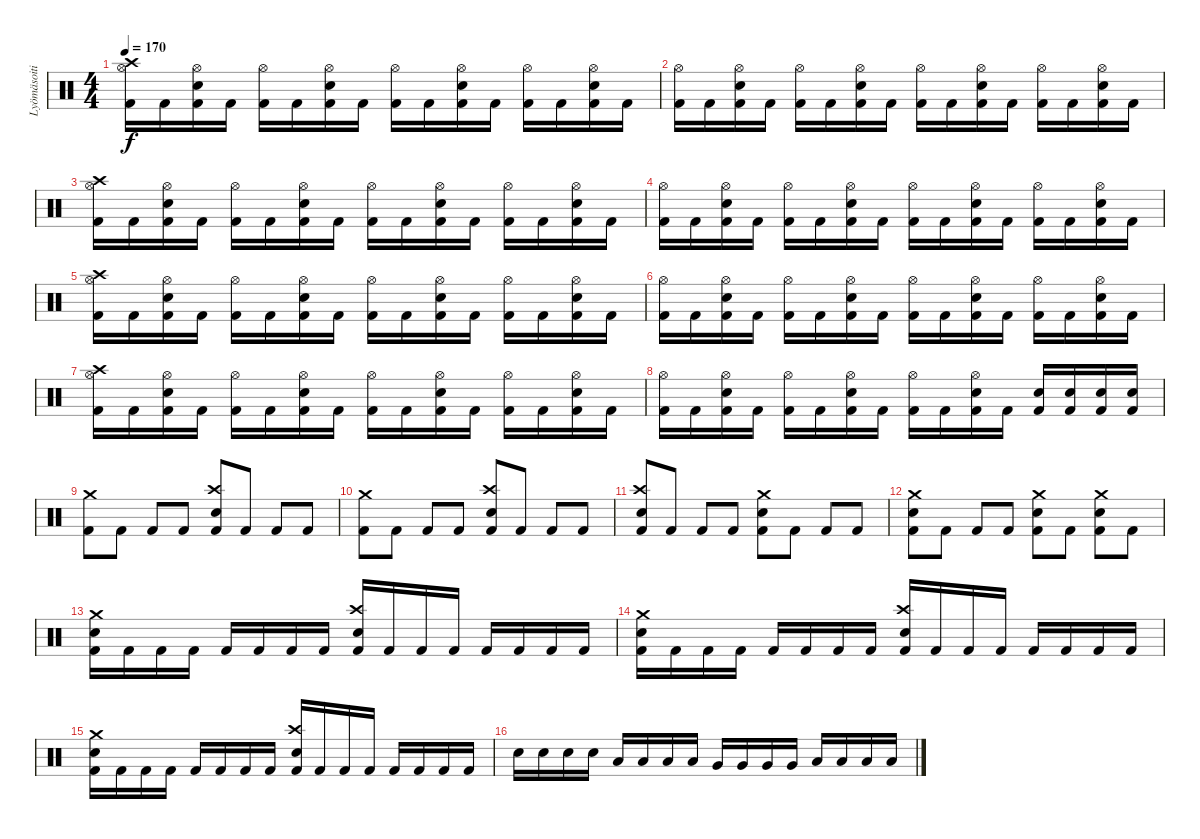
\track ("Lyömäsoitin" "Lyömäsoiti") {instrument percussion}
\staff {score}
\articulation defaults
\ts (4 4)
\tempo 170
\clef neutral
\ks c
("Kick (hit) 2" "Crash high (hit)" "Hi-Hat (open)").16{dy f} "Kick (hit) 2".16 ("Kick (hit) 2" "Snare (hit) 2" "Hi-Hat (open)").16 "Kick (hit) 2".16 ("Kick (hit) 2" "Hi-Hat (open)").16 "Kick (hit) 2".16 ("Kick (hit) 2" "Snare (hit) 2" "Hi-Hat (open)").16 "Kick (hit) 2".16 ("Kick (hit) 2" "Hi-Hat (open)").16 "Kick (hit) 2".16 ("Kick (hit) 2" "Snare (hit) 2" "Hi-Hat (open)").16 "Kick (hit) 2".16 ("Kick (hit) 2" "Hi-Hat (open)").16 "Kick (hit) 2".16 ("Kick (hit) 2" "Snare (hit) 2" "Hi-Hat (open)").16 "Kick (hit) 2".16 |
("Kick (hit) 2" "Hi-Hat (open)").16 "Kick (hit) 2".16 ("Kick (hit) 2" "Snare (hit) 2" "Hi-Hat (open)").16 "Kick (hit) 2".16 ("Kick (hit) 2" "Hi-Hat (open)").16 "Kick (hit) 2".16 ("Kick (hit) 2" "Snare (hit) 2" "Hi-Hat (open)").16 "Kick (hit) 2".16 ("Kick (hit) 2" "Hi-Hat (open)").16 "Kick (hit) 2".16 ("Kick (hit) 2" "Snare (hit) 2" "Hi-Hat (open)").16 "Kick (hit) 2".16 ("Kick (hit) 2" "Hi-Hat (open)").16 "Kick (hit) 2".16 ("Kick (hit) 2" "Snare (hit) 2" "Hi-Hat (open)").16 "Kick (hit) 2".16 |
("Kick (hit) 2" "Crash high (hit)" "Hi-Hat (open)").16 "Kick (hit) 2".16 ("Kick (hit) 2" "Snare (hit) 2" "Hi-Hat (open)").16 "Kick (hit) 2".16 ("Kick (hit) 2" "Hi-Hat (open)").16 "Kick (hit) 2".16 ("Kick (hit) 2" "Snare (hit) 2" "Hi-Hat (open)").16 "Kick (hit) 2".16 ("Kick (hit) 2" "Hi-Hat (open)").16 "Kick (hit) 2".16 ("Kick (hit) 2" "Snare (hit) 2" "Hi-Hat (open)").16 "Kick (hit) 2".16 ("Kick (hit) 2" "Hi-Hat (open)").16 "Kick (hit) 2".16 ("Kick (hit) 2" "Snare (hit) 2" "Hi-Hat (open)").16 "Kick (hit) 2".16 |
("Kick (hit) 2" "Hi-Hat (open)").16 "Kick (hit) 2".16 ("Kick (hit) 2" "Snare (hit) 2" "Hi-Hat (open)").16 "Kick (hit) 2".16 ("Kick (hit) 2" "Hi-Hat (open)").16 "Kick (hit) 2".16 ("Kick (hit) 2" "Snare (hit) 2" "Hi-Hat (open)").16 "Kick (hit) 2".16 ("Kick (hit) 2" "Hi-Hat (open)").16 "Kick (hit) 2".16 ("Kick (hit) 2" "Snare (hit) 2" "Hi-Hat (open)").16 "Kick (hit) 2".16 ("Kick (hit) 2" "Hi-Hat (open)").16 "Kick (hit) 2".16 ("Kick (hit) 2" "Snare (hit) 2" "Hi-Hat (open)").16 "Kick (hit) 2".16 |
("Kick (hit) 2" "Crash high (hit)" "Hi-Hat (open)").16 "Kick (hit) 2".16 ("Kick (hit) 2" "Snare (hit) 2" "Hi-Hat (open)").16 "Kick (hit) 2".16 ("Kick (hit) 2" "Hi-Hat (open)").16 "Kick (hit) 2".16 ("Kick (hit) 2" "Snare (hit) 2" "Hi-Hat (open)").16 "Kick (hit) 2".16 ("Kick (hit) 2" "Hi-Hat (open)").16 "Kick (hit) 2".16 ("Kick (hit) 2" "Snare (hit) 2" "Hi-Hat (open)").16 "Kick (hit) 2".16 ("Kick (hit) 2" "Hi-Hat (open)").16 "Kick (hit) 2".16 ("Kick (hit) 2" "Snare (hit) 2" "Hi-Hat (open)").16 "Kick (hit) 2".16 |
("Kick (hit) 2" "Hi-Hat (open)").16 "Kick (hit) 2".16 ("Kick (hit) 2" "Snare (hit) 2" "Hi-Hat (open)").16 "Kick (hit) 2".16 ("Kick (hit) 2" "Hi-Hat (open)").16 "Kick (hit) 2".16 ("Kick (hit) 2" "Snare (hit) 2" "Hi-Hat (open)").16 "Kick (hit) 2".16 ("Kick (hit) 2" "Hi-Hat (open)").16 "Kick (hit) 2".16 ("Kick (hit) 2" "Snare (hit) 2" "Hi-Hat (open)").16 "Kick (hit) 2".16 ("Kick (hit) 2" "Hi-Hat (open)").16 "Kick (hit) 2".16 ("Kick (hit) 2" "Snare (hit) 2" "Hi-Hat (open)").16 "Kick (hit) 2".16 |
("Kick (hit) 2" "Crash high (hit)" "Hi-Hat (open)").16 "Kick (hit) 2".16 ("Kick (hit) 2" "Snare (hit) 2" "Hi-Hat (open)").16 "Kick (hit) 2".16 ("Kick (hit) 2" "Hi-Hat (open)").16 "Kick (hit) 2".16 ("Kick (hit) 2" "Snare (hit) 2" "Hi-Hat (open)").16 "Kick (hit) 2".16 ("Kick (hit) 2" "Hi-Hat (open)").16 "Kick (hit) 2".16 ("Kick (hit) 2" "Snare (hit) 2" "Hi-Hat (open)").16 "Kick (hit) 2".16 ("Kick (hit) 2" "Hi-Hat (open)").16 "Kick (hit) 2".16 ("Kick (hit) 2" "Snare (hit) 2" "Hi-Hat (open)").16 "Kick (hit) 2".16 |
("Kick (hit) 2" "Hi-Hat (open)").16 "Kick (hit) 2".16 ("Kick (hit) 2" "Snare (hit) 2" "Hi-Hat (open)").16 "Kick (hit) 2".16 ("Kick (hit) 2" "Hi-Hat (open)").16 "Kick (hit) 2".16 ("Kick (hit) 2" "Snare (hit) 2" "Hi-Hat (open)").16 "Kick (hit) 2".16 ("Kick (hit) 2" "Hi-Hat (open)").16 "Kick (hit) 2".16 ("Kick (hit) 2" "Snare (hit) 2" "Hi-Hat (open)").16 "Kick (hit) 2".16 ("Kick (hit) 2" "Snare (hit) 2").16 ("Kick (hit) 2" "Snare (hit) 2").16 ("Kick (hit) 2" "Snare (hit) 2").16 ("Kick (hit) 2" "Snare (hit) 2").16 |
("Kick (hit) 2" "Crash medium (hit)").8 "Kick (hit) 2".8 "Kick (hit) 2".8 "Kick (hit) 2".8 ("Kick (hit) 2" "Snare (hit) 2" "Crash high (hit)").8 "Kick (hit) 2".8 "Kick (hit) 2".8 "Kick (hit) 2".8 |
("Kick (hit) 2" "Crash medium (hit)").8 "Kick (hit) 2".8 "Kick (hit) 2".8 "Kick (hit) 2".8 ("Kick (hit) 2" "Snare (hit) 2" "Crash high (hit)").8 "Kick (hit) 2".8 "Kick (hit) 2".8 "Kick (hit) 2".8 |
("Kick (hit) 2" "Snare (hit) 2" "Crash high (hit)").8 "Kick (hit) 2".8 "Kick (hit) 2".8 "Kick (hit) 2".8 ("Kick (hit) 2" "Snare (hit) 2" "Crash medium (hit)").8 "Kick (hit) 2".8 "Kick (hit) 2".8 "Kick (hit) 2".8 |
("Kick (hit) 2" "Snare (hit) 2" "Crash medium (hit)").8 "Kick (hit) 2".8 "Kick (hit) 2".8 "Kick (hit) 2".8 ("Kick (hit) 2" "Snare (hit) 2" "Crash medium (hit)").8 "Kick (hit) 2".8 ("Kick (hit) 2" "Snare (hit) 2" "Crash medium (hit)").8 "Kick (hit) 2".8 |
("Kick (hit) 2" "Snare (hit) 2" "Crash medium (hit)").16 "Kick (hit) 2".16 "Kick (hit) 2".16 "Kick (hit) 2".16 "Kick (hit) 2".16 "Kick (hit) 2".16 "Kick (hit) 2".16 "Kick (hit) 2".16 ("Kick (hit) 2" "Snare (hit) 2" "Crash high (hit)").16 "Kick (hit) 2".16 "Kick (hit) 2".16 "Kick (hit) 2".16 "Kick (hit) 2".16 "Kick (hit) 2".16 "Kick (hit) 2".16 "Kick (hit) 2".16 |
("Kick (hit) 2" "Snare (hit) 2" "Crash medium (hit)").16 "Kick (hit) 2".16 "Kick (hit) 2".16 "Kick (hit) 2".16 "Kick (hit) 2".16 "Kick (hit) 2".16 "Kick (hit) 2".16 "Kick (hit) 2".16 ("Kick (hit) 2" "Snare (hit) 2" "Crash high (hit)").16 "Kick (hit) 2".16 "Kick (hit) 2".16 "Kick (hit) 2".16 "Kick (hit) 2".16 "Kick (hit) 2".16 "Kick (hit) 2".16 "Kick (hit) 2".16 |
("Kick (hit) 2" "Snare (hit) 2" "Crash medium (hit)").16 "Kick (hit) 2".16 "Kick (hit) 2".16 "Kick (hit) 2".16 "Kick (hit) 2".16 "Kick (hit) 2".16 "Kick (hit) 2".16 "Kick (hit) 2".16 ("Kick (hit) 2" "Snare (hit) 2" "Crash high (hit)").16 "Kick (hit) 2".16 "Kick (hit) 2".16 "Kick (hit) 2".16 "Kick (hit) 2".16 "Kick (hit) 2".16 "Kick (hit) 2".16 "Kick (hit) 2".16 |
"Snare (hit) 2".16 "Snare (hit) 2".16 "Snare (hit) 2".16 "Snare (hit) 2".16 "Low Tom (hit)".16 "Low Tom (hit)".16 "Low Tom (hit)".16 "Low Tom (hit)".16 "Very Low Tom (hit)".16 "Very Low Tom (hit)".16 "Very Low Tom (hit)".16 "Very Low Tom (hit)".16 "Low Floor Tom (hit)".16 "Low Floor Tom (hit)".16 "Low Floor Tom (hit)".16 "Low Floor Tom (hit)".16
